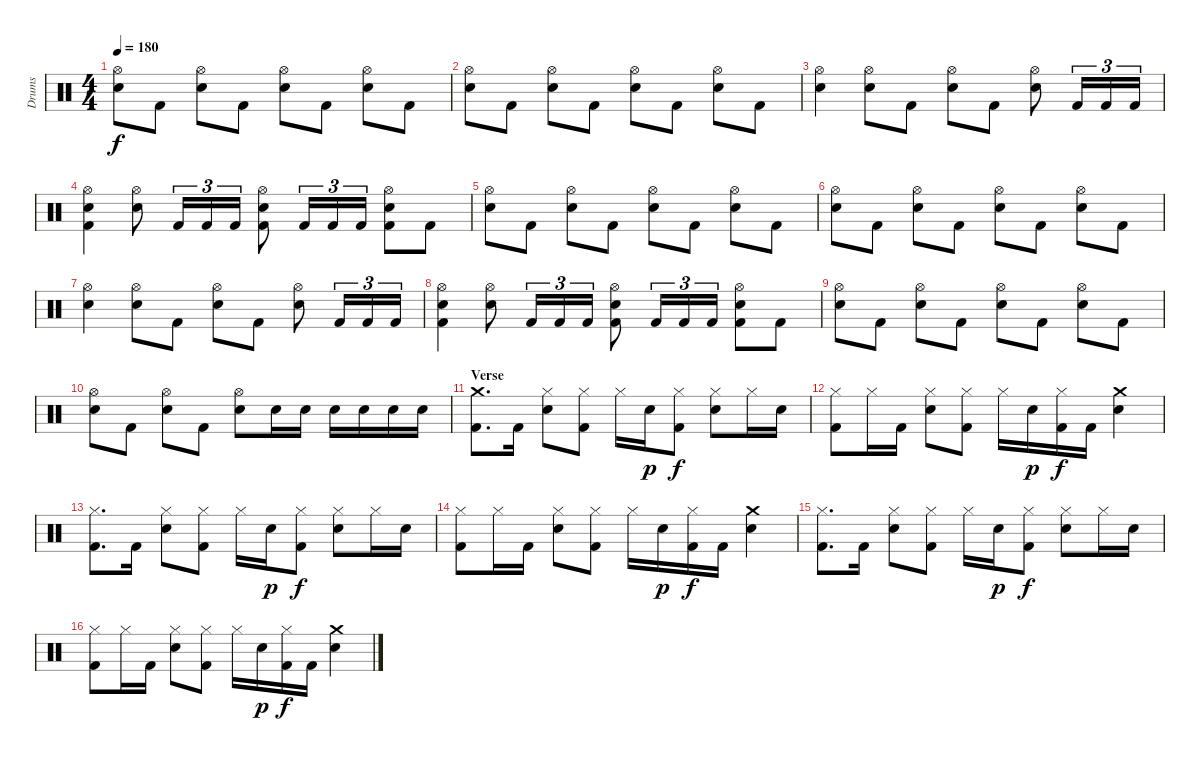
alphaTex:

\bracketExtendMode groupsimilarinstruments
\track ("Drumkit" "Drums") {solo instrument percussion}
\staff {score}
\articulation defaults
\ts (4 4)
\tempo 180
\clef neutral
\ks c
("Hi-Hat (open)" "Snare (hit) 2").8{dy f} "Kick (hit) 2".8 ("Hi-Hat (open)" "Snare (hit) 2").8 "Kick (hit) 2".8 ("Hi-Hat (open)" "Snare (hit) 2").8 "Kick (hit) 2".8 ("Hi-Hat (open)" "Snare (hit) 2").8 "Kick (hit) 2".8 |
("Hi-Hat (open)" "Snare (hit) 2").8 "Kick (hit) 2".8 ("Hi-Hat (open)" "Snare (hit) 2").8 "Kick (hit) 2".8 ("Hi-Hat (open)" "Snare (hit) 2").8 "Kick (hit) 2".8 ("Hi-Hat (open)" "Snare (hit) 2").8 "Kick (hit) 2".8 |
("Hi-Hat (open)" "Snare (hit) 2").4 ("Hi-Hat (open)" "Snare (hit) 2").8 "Kick (hit) 2".8 ("Hi-Hat (open)" "Snare (hit) 2").8 "Kick (hit) 2".8 ("Hi-Hat (open)" "Snare (hit) 2").8 "Kick (hit) 2".16{tu (3 2)} "Kick (hit) 2".16{tu (3 2)} "Kick (hit) 2".16{tu (3 2)} |
("Hi-Hat (open)" "Snare (hit) 2" "Kick (hit) 2").4 ("Hi-Hat (open)" "Snare (hit) 2").8 "Kick (hit) 2".16{tu (3 2)} "Kick (hit) 2".16{tu (3 2)} "Kick (hit) 2".16{tu (3 2)} ("Hi-Hat (open)" "Snare (hit) 2" "Kick (hit) 2").8 "Kick (hit) 2".16{tu (3 2)} "Kick (hit) 2".16{tu (3 2)} "Kick (hit) 2".16{tu (3 2)} ("Hi-Hat (open)" "Snare (hit) 2" "Kick (hit) 2").8 "Kick (hit) 2".8 |
("Hi-Hat (open)" "Snare (hit) 2").8 "Kick (hit) 2".8 ("Hi-Hat (open)" "Snare (hit) 2").8 "Kick (hit) 2".8 ("Hi-Hat (open)" "Snare (hit) 2").8 "Kick (hit) 2".8 ("Hi-Hat (open)" "Snare (hit) 2").8 "Kick (hit) 2".8 |
("Hi-Hat (open)" "Snare (hit) 2").8 "Kick (hit) 2".8 ("Hi-Hat (open)" "Snare (hit) 2").8 "Kick (hit) 2".8 ("Hi-Hat (open)" "Snare (hit) 2").8 "Kick (hit) 2".8 ("Hi-Hat (open)" "Snare (hit) 2").8 "Kick (hit) 2".8 |
("Hi-Hat (open)" "Snare (hit) 2").4 ("Hi-Hat (open)" "Snare (hit) 2").8 "Kick (hit) 2".8 ("Hi-Hat (open)" "Snare (hit) 2").8 "Kick (hit) 2".8 ("Hi-Hat (open)" "Snare (hit) 2").8 "Kick (hit) 2".16{tu (3 2)} "Kick (hit) 2".16{tu (3 2)} "Kick (hit) 2".16{tu (3 2)} |
("Hi-Hat (open)" "Snare (hit) 2" "Kick (hit) 2").4 ("Hi-Hat (open)" "Snare (hit) 2").8 "Kick (hit) 2".16{tu (3 2)} "Kick (hit) 2".16{tu (3 2)} "Kick (hit) 2".16{tu (3 2)} ("Hi-Hat (open)" "Snare (hit) 2" "Kick (hit) 2").8 "Kick (hit) 2".16{tu (3 2)} "Kick (hit) 2".16{tu (3 2)} "Kick (hit) 2".16{tu (3 2)} ("Hi-Hat (open)" "Snare (hit) 2" "Kick (hit) 2").8 "Kick (hit) 2".8 |
("Hi-Hat (open)" "Snare (hit) 2").8 "Kick (hit) 2".8 ("Hi-Hat (open)" "Snare (hit) 2").8 "Kick (hit) 2".8 ("Hi-Hat (open)" "Snare (hit) 2").8 "Kick (hit) 2".8 ("Hi-Hat (open)" "Snare (hit) 2").8 "Kick (hit) 2".8 |
("Hi-Hat (open)" "Snare (hit) 2").8 "Kick (hit) 2".8 ("Hi-Hat (open)" "Snare (hit) 2").8 "Kick (hit) 2".8 ("Hi-Hat (open)" "Snare (hit) 2").8 "Snare (hit) 2".16 "Snare (hit) 2".16 "Snare (hit) 2".16 "Snare (hit) 2".16 "Snare (hit) 2".16 "Snare (hit) 2".16 |
\section ("" "Verse")
("Crash medium (hit)" "Kick (hit) 2").8{d} "Kick (hit) 2".16 ("Hi-Hat (closed)" "Snare (hit) 2").8 ("Hi-Hat (closed)" "Kick (hit) 2").8 "Hi-Hat (closed)".16 "Snare (hit) 2".16{dy p} ("Hi-Hat (closed)" "Kick (hit) 2").8{dy f} ("Hi-Hat (closed)" "Snare (hit) 2").8 "Hi-Hat (closed)".16 "Snare (hit) 2".16 |
("Hi-Hat (closed)" "Kick (hit) 2").8 "Hi-Hat (closed)".16 "Kick (hit) 2".16 ("Hi-Hat (closed)" "Snare (hit) 2").8 ("Hi-Hat (closed)" "Kick (hit) 2").8 "Hi-Hat (closed)".16 "Snare (hit) 2".16{dy p} ("Hi-Hat (closed)" "Kick (hit) 2").16{dy f} "Kick (hit) 2".16 ("Crash medium (hit)" "Snare (hit) 2").4 |
("Hi-Hat (closed)" "Kick (hit) 2").8{d} "Kick (hit) 2".16 ("Hi-Hat (closed)" "Snare (hit) 2").8 ("Hi-Hat (closed)" "Kick (hit) 2").8 "Hi-Hat (closed)".16 "Snare (hit) 2".16{dy p} ("Hi-Hat (closed)" "Kick (hit) 2").8{dy f} ("Hi-Hat (closed)" "Snare (hit) 2").8 "Hi-Hat (closed)".16 "Snare (hit) 2".16 |
("Hi-Hat (closed)" "Kick (hit) 2").8 "Hi-Hat (closed)".16 "Kick (hit) 2".16 ("Hi-Hat (closed)" "Snare (hit) 2").8 ("Hi-Hat (closed)" "Kick (hit) 2").8 "Hi-Hat (closed)".16 "Snare (hit) 2".16{dy p} ("Hi-Hat (closed)" "Kick (hit) 2").16{dy f} "Kick (hit) 2".16 ("Crash medium (hit)" "Snare (hit) 2").4 |
("Hi-Hat (closed)" "Kick (hit) 2").8{d} "Kick (hit) 2".16 ("Hi-Hat (closed)" "Snare (hit) 2").8 ("Hi-Hat (closed)" "Kick (hit) 2").8 "Hi-Hat (closed)".16 "Snare (hit) 2".16{dy p} ("Hi-Hat (closed)" "Kick (hit) 2").8{dy f} ("Hi-Hat (closed)" "Snare (hit) 2").8 "Hi-Hat (closed)".16 "Snare (hit) 2".16 |
("Hi-Hat (closed)" "Kick (hit) 2").8 "Hi-Hat (closed)".16 "Kick (hit) 2".16 ("Hi-Hat (closed)" "Snare (hit) 2").8 ("Hi-Hat (closed)" "Kick (hit) 2").8 "Hi-Hat (closed)".16 "Snare (hit) 2".16{dy p} ("Hi-Hat (closed)" "Kick (hit) 2").16{dy f} "Kick (hit) 2".16 ("Crash medium (hit)" "Snare (hit) 2").4
